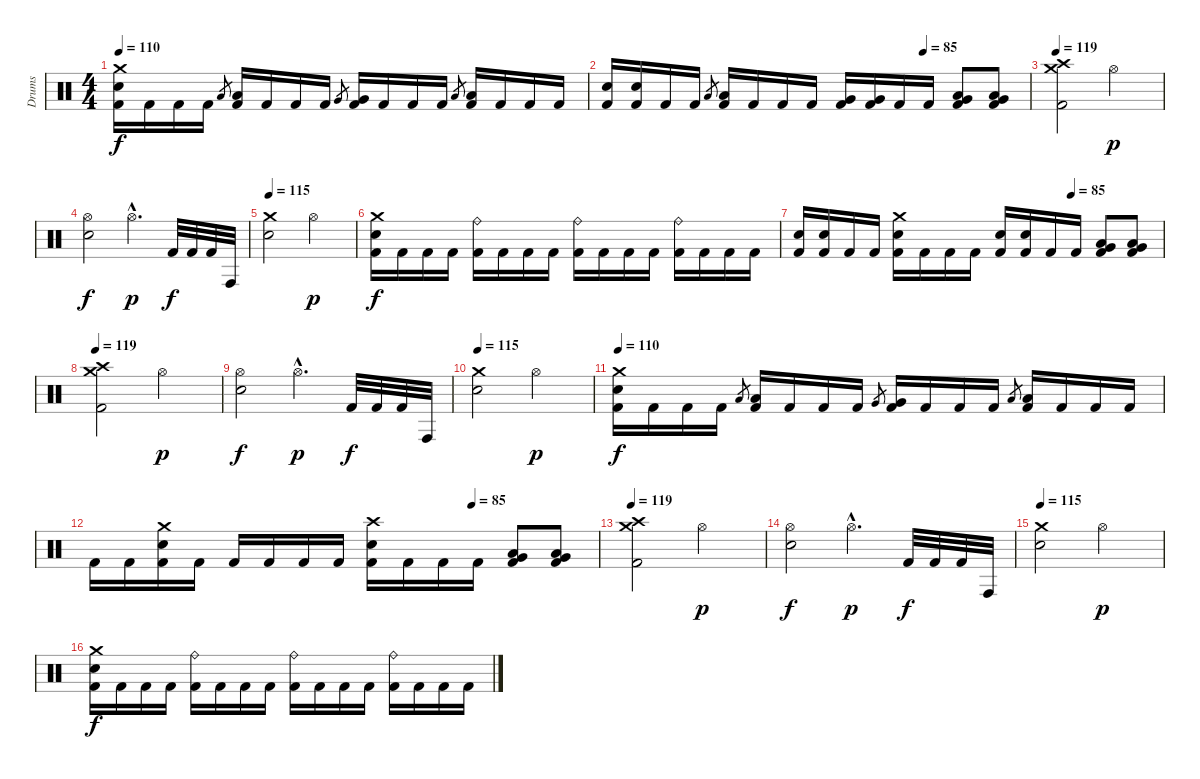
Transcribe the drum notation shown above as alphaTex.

\track ("Drums" "Drums") {instrument percussion}
\staff {score}
\articulation defaults
\ts (4 4)
\tempo 110
\clef neutral
\ks c
("Crash medium (hit)" "Snare (hit) 2" "Kick (hit) 2").16{dy f} "Kick (hit) 2".16 "Kick (hit) 2".16 "Kick (hit) 2".16 "Low Tom (hit)".8{gr} ("Low Tom (hit)" "Kick (hit) 2").16 "Kick (hit) 2".16 "Kick (hit) 2".16 "Kick (hit) 2".16 "Very Low Tom (hit)".8{gr} ("Very Low Tom (hit)" "Kick (hit) 2").16 "Kick (hit) 2".16 "Kick (hit) 2".16 "Kick (hit) 2".16 "Low Floor Tom (hit)".8{gr} ("Low Floor Tom (hit)" "Kick (hit) 2").16 "Kick (hit) 2".16 "Kick (hit) 2".16 "Kick (hit) 2".16 |
\tempo (85 0.75)
("Snare (hit) 2" "Kick (hit) 2").16 ("Snare (hit) 2" "Kick (hit) 2").16 "Kick (hit) 2".16 "Kick (hit) 2".16 "Low Tom (hit)".8{gr} ("Low Tom (hit)" "Kick (hit) 2").16 "Kick (hit) 2".16 "Kick (hit) 2".16 "Kick (hit) 2".16 ("Very Low Tom (hit)" "Kick (hit) 2").16 ("Very Low Tom (hit)" "Kick (hit) 2").16 "Kick (hit) 2".16 "Kick (hit) 2".16 ("Low Tom (hit)" "Very Low Tom (hit)" "Kick (hit) 2").8 ("Low Tom (hit)" "Very Low Tom (hit)" "Kick (hit) 2").8 |
\tempo 119
("Crash high (hit)" "Crash medium (hit)" "Kick (hit) 2").2 "Hi-Hat (open)".2{dy p} |
("Snare (hit) 2" "Hi-Hat (open)").2{dy f} "Hi-Hat (open)"{hac}.4{d dy p} "Kick (hit) 2".32{dy f} "Kick (hit) 2".32 "Kick (hit) 2".32 "Conga high (hit)".32 |
\tempo 115
("Crash medium (hit)" "Snare (hit) 2").2 "Hi-Hat (open)".2{dy p} |
("Crash medium (hit)" "Snare (hit) 2" "Kick (hit) 2").16{dy f} "Kick (hit) 2".16 "Kick (hit) 2".16 "Kick (hit) 2".16 ("Ride (bell)" "Kick (hit) 2").16 "Kick (hit) 2".16 "Kick (hit) 2".16 "Kick (hit) 2".16 ("Ride (bell)" "Kick (hit) 2").16 "Kick (hit) 2".16 "Kick (hit) 2".16 "Kick (hit) 2".16 ("Ride (bell)" "Kick (hit) 2").16 "Kick (hit) 2".16 "Kick (hit) 2".16 "Kick (hit) 2".16 |
\tempo (85 0.75)
("Snare (hit) 2" "Kick (hit) 2").16 ("Snare (hit) 2" "Kick (hit) 2").16 "Kick (hit) 2".16 "Kick (hit) 2".16 ("Crash medium (hit)" "Snare (hit) 2" "Kick (hit) 2").16 "Kick (hit) 2".16 "Kick (hit) 2".16 "Kick (hit) 2".16 ("Snare (hit) 2" "Kick (hit) 2").16 ("Snare (hit) 2" "Kick (hit) 2").16 "Kick (hit) 2".16 "Kick (hit) 2".16 ("Low Tom (hit)" "Very Low Tom (hit)" "Kick (hit) 2").8 ("Low Tom (hit)" "Very Low Tom (hit)" "Kick (hit) 2").8 |
\tempo 119
("Crash high (hit)" "Crash medium (hit)" "Kick (hit) 2").2 "Hi-Hat (open)".2{dy p} |
("Snare (hit) 2" "Hi-Hat (open)").2{dy f} "Hi-Hat (open)"{hac}.4{d dy p} "Kick (hit) 2".32{dy f} "Kick (hit) 2".32 "Kick (hit) 2".32 "Conga high (hit)".32 |
\tempo 115
("Crash medium (hit)" "Snare (hit) 2").2 "Hi-Hat (open)".2{dy p} |
\tempo 110
("Crash medium (hit)" "Snare (hit) 2" "Kick (hit) 2").16{dy f} "Kick (hit) 2".16 "Kick (hit) 2".16 "Kick (hit) 2".16 "Low Tom (hit)".8{gr} ("Low Tom (hit)" "Kick (hit) 2").16 "Kick (hit) 2".16 "Kick (hit) 2".16 "Kick (hit) 2".16 "Very Low Tom (hit)".8{gr} ("Very Low Tom (hit)" "Kick (hit) 2").16 "Kick (hit) 2".16 "Kick (hit) 2".16 "Kick (hit) 2".16 "Low Floor Tom (hit)".8{gr} ("Low Floor Tom (hit)" "Kick (hit) 2").16 "Kick (hit) 2".16 "Kick (hit) 2".16 "Kick (hit) 2".16 |
\tempo (85 0.75)
"Kick (hit) 2".16 "Kick (hit) 2".16 ("Crash medium (hit)" "Snare (hit) 2" "Kick (hit) 2").16 "Kick (hit) 2".16 "Kick (hit) 2".16 "Kick (hit) 2".16 "Kick (hit) 2".16 "Kick (hit) 2".16 ("Crash high (hit)" "Snare (hit) 2" "Kick (hit) 2").16 "Kick (hit) 2".16 "Kick (hit) 2".16 "Kick (hit) 2".16 ("Low Tom (hit)" "Very Low Tom (hit)" "Kick (hit) 2").8 ("Low Tom (hit)" "Very Low Tom (hit)" "Kick (hit) 2").8 |
\tempo 119
("Crash high (hit)" "Crash medium (hit)" "Kick (hit) 2").2 "Hi-Hat (open)".2{dy p} |
("Snare (hit) 2" "Hi-Hat (open)").2{dy f} "Hi-Hat (open)"{hac}.4{d dy p} "Kick (hit) 2".32{dy f} "Kick (hit) 2".32 "Kick (hit) 2".32 "Conga high (hit)".32 |
\tempo 115
("Crash medium (hit)" "Snare (hit) 2").2 "Hi-Hat (open)".2{dy p} |
("Crash medium (hit)" "Snare (hit) 2" "Kick (hit) 2").16{dy f} "Kick (hit) 2".16 "Kick (hit) 2".16 "Kick (hit) 2".16 ("Ride (bell)" "Kick (hit) 2").16 "Kick (hit) 2".16 "Kick (hit) 2".16 "Kick (hit) 2".16 ("Ride (bell)" "Kick (hit) 2").16 "Kick (hit) 2".16 "Kick (hit) 2".16 "Kick (hit) 2".16 ("Ride (bell)" "Kick (hit) 2").16 "Kick (hit) 2".16 "Kick (hit) 2".16 "Kick (hit) 2".16
